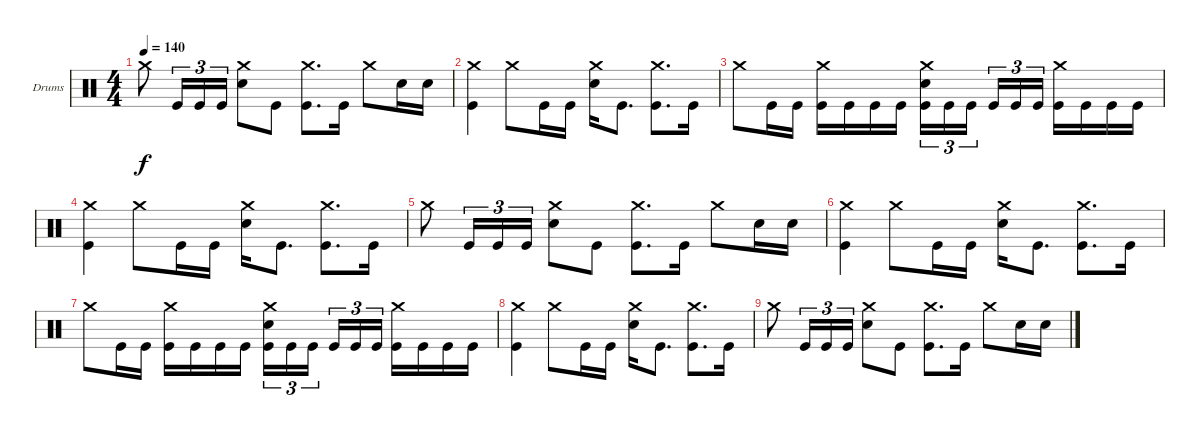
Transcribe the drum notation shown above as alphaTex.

\defaultSystemsLayout 4
\bracketExtendMode groupsimilarinstruments
\firstSystemTrackNameOrientation horizontal
\otherSystemsTrackNameOrientation horizontal
\track ("Drumkit" "Drums") {instrument percussion}
\staff {score}
\articulation defaults
\ts (4 4)
\tempo 140
\clef neutral
\ks c "Crash medium (hit)".8{dy f} "Kick (hit)".16{tu (3 2)} "Kick (hit)".16{tu (3 2)} "Kick (hit)".16{tu (3 2)}
("Crash medium (hit)" "Snare (hit) 2").8 "Kick (hit)".8 ("Crash medium (hit)" "Kick (hit)").8{d} "Kick (hit)".16 "Crash medium (hit)".8 "Snare (hit) 2".16 "Snare (hit) 2".16 |
("Crash medium (hit)" "Kick (hit)").4 "Crash medium (hit)".8 "Kick (hit)".16 "Kick (hit)".16 ("Crash medium (hit)" "Snare (hit) 2").16 "Kick (hit)".8{d} ("Crash medium (hit)" "Kick (hit)").8{d} "Kick (hit)".16 |
"Crash medium (hit)".8 "Kick (hit)".16 "Kick (hit)".16 ("Crash medium (hit)" "Kick (hit)").16 "Kick (hit)".16 "Kick (hit)".16 "Kick (hit)".16 ("Crash medium (hit)" "Snare (hit) 2" "Kick (hit)").16{tu (3 2)} "Kick (hit)".16{tu (3 2)} "Kick (hit)".16{tu (3 2)} "Kick (hit)".16{tu (3 2)} "Kick (hit)".16{tu (3 2)} "Kick (hit)".16{tu (3 2)} ("Crash medium (hit)" "Kick (hit)").16 "Kick (hit)".16 "Kick (hit)".16 "Kick (hit)".16 |
("Crash medium (hit)" "Kick (hit)").4 "Crash medium (hit)".8 "Kick (hit)".16 "Kick (hit)".16 ("Crash medium (hit)" "Snare (hit) 2").16 "Kick (hit)".8{d} ("Crash medium (hit)" "Kick (hit)").8{d} "Kick (hit)".16 |
"Crash medium (hit)".8 "Kick (hit)".16{tu (3 2)} "Kick (hit)".16{tu (3 2)} "Kick (hit)".16{tu (3 2)} ("Crash medium (hit)" "Snare (hit) 2").8 "Kick (hit)".8 ("Crash medium (hit)" "Kick (hit)").8{d} "Kick (hit)".16 "Crash medium (hit)".8 "Snare (hit) 2".16 "Snare (hit) 2".16 |
("Crash medium (hit)" "Kick (hit)").4 "Crash medium (hit)".8 "Kick (hit)".16 "Kick (hit)".16 ("Crash medium (hit)" "Snare (hit) 2").16 "Kick (hit)".8{d} ("Crash medium (hit)" "Kick (hit)").8{d} "Kick (hit)".16 |
"Crash medium (hit)".8 "Kick (hit)".16 "Kick (hit)".16 ("Crash medium (hit)" "Kick (hit)").16 "Kick (hit)".16 "Kick (hit)".16 "Kick (hit)".16 ("Crash medium (hit)" "Snare (hit) 2" "Kick (hit)").16{tu (3 2)} "Kick (hit)".16{tu (3 2)} "Kick (hit)".16{tu (3 2)} "Kick (hit)".16{tu (3 2)} "Kick (hit)".16{tu (3 2)} "Kick (hit)".16{tu (3 2)} ("Crash medium (hit)" "Kick (hit)").16 "Kick (hit)".16 "Kick (hit)".16 "Kick (hit)".16 |
("Crash medium (hit)" "Kick (hit)").4 "Crash medium (hit)".8 "Kick (hit)".16 "Kick (hit)".16 ("Crash medium (hit)" "Snare (hit) 2").16 "Kick (hit)".8{d} ("Crash medium (hit)" "Kick (hit)").8{d} "Kick (hit)".16 |
"Crash medium (hit)".8 "Kick (hit)".16{tu (3 2)} "Kick (hit)".16{tu (3 2)} "Kick (hit)".16{tu (3 2)} ("Crash medium (hit)" "Snare (hit) 2").8 "Kick (hit)".8 ("Crash medium (hit)" "Kick (hit)").8{d} "Kick (hit)".16 "Crash medium (hit)".8 "Snare (hit) 2".16 "Snare (hit) 2".16 |
|
|
|
\scale
0.333333 |
\scale
0.333333 |
\scale
0.333333 |
\scale
0.333333
